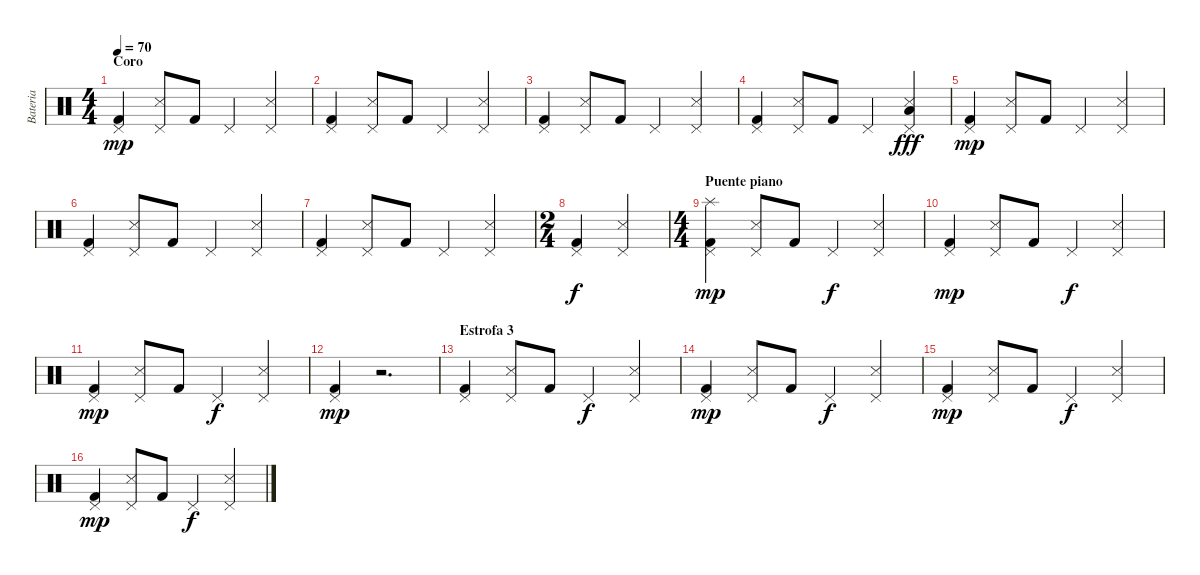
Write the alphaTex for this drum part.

\track ("Bateria" "Bateria") {instrument percussion}
\staff {score}
\articulation defaults
\ts (4 4)
\section ("" "Coro")
\tempo 70
\clef neutral
\ks c
("Kick (hit) 2" "Pedal Hi-Hat (hit)").4{dy mp} ("Snare (side stick) 3" "Pedal Hi-Hat (hit)").8 "Kick (hit) 2".8 "Pedal Hi-Hat (hit)".4 ("Snare (side stick) 3" "Pedal Hi-Hat (hit)").4 |
("Kick (hit) 2" "Pedal Hi-Hat (hit)").4 ("Snare (side stick) 3" "Pedal Hi-Hat (hit)").8 "Kick (hit) 2".8 "Pedal Hi-Hat (hit)".4 ("Snare (side stick) 3" "Pedal Hi-Hat (hit)").4 |
("Kick (hit) 2" "Pedal Hi-Hat (hit)").4 ("Snare (side stick) 3" "Pedal Hi-Hat (hit)").8 "Kick (hit) 2".8 "Pedal Hi-Hat (hit)".4 ("Snare (side stick) 3" "Pedal Hi-Hat (hit)").4 |
("Kick (hit) 2" "Pedal Hi-Hat (hit)").4 ("Snare (side stick) 3" "Pedal Hi-Hat (hit)").8 "Kick (hit) 2".8 "Pedal Hi-Hat (hit)".4 ("Snare (side stick) 3" "Pedal Hi-Hat (hit)" "Low Floor Tom (hit)").4{dy fff} |
("Kick (hit) 2" "Pedal Hi-Hat (hit)").4{dy mp} ("Snare (side stick) 3" "Pedal Hi-Hat (hit)").8 "Kick (hit) 2".8 "Pedal Hi-Hat (hit)".4 ("Snare (side stick) 3" "Pedal Hi-Hat (hit)").4 |
("Kick (hit) 2" "Pedal Hi-Hat (hit)").4 ("Snare (side stick) 3" "Pedal Hi-Hat (hit)").8 "Kick (hit) 2".8 "Pedal Hi-Hat (hit)".4 ("Snare (side stick) 3" "Pedal Hi-Hat (hit)").4 |
("Kick (hit) 2" "Pedal Hi-Hat (hit)").4 ("Snare (side stick) 3" "Pedal Hi-Hat (hit)").8 "Kick (hit) 2".8 "Pedal Hi-Hat (hit)".4 ("Snare (side stick) 3" "Pedal Hi-Hat (hit)").4 |
\ts (2 4)
("Kick (hit) 2" "Pedal Hi-Hat (hit)").4{dy f} ("Snare (side stick) 3" "Pedal Hi-Hat (hit)").4 |
\ts (4 4)
\section ("" "Puente piano")
("Kick (hit) 2" "Pedal Hi-Hat (hit)" "Splash (hit)").4{dy mp} ("Snare (side stick) 3" "Pedal Hi-Hat (hit)").8 "Kick (hit) 2".8 "Pedal Hi-Hat (hit)".4{dy f} ("Snare (side stick) 3" "Pedal Hi-Hat (hit)").4 |
("Kick (hit) 2" "Pedal Hi-Hat (hit)").4{dy mp} ("Snare (side stick) 3" "Pedal Hi-Hat (hit)").8 "Kick (hit) 2".8 "Pedal Hi-Hat (hit)".4{dy f} ("Snare (side stick) 3" "Pedal Hi-Hat (hit)").4 |
("Kick (hit) 2" "Pedal Hi-Hat (hit)").4{dy mp} ("Snare (side stick) 3" "Pedal Hi-Hat (hit)").8 "Kick (hit) 2".8 "Pedal Hi-Hat (hit)".4{dy f} ("Snare (side stick) 3" "Pedal Hi-Hat (hit)").4 |
("Pedal Hi-Hat (hit)" "Kick (hit) 2").4{dy mp} r.2{d} |
\section ("" "Estrofa 3")
("Pedal Hi-Hat (hit)" "Kick (hit) 2").4 ("Pedal Hi-Hat (hit)" "Snare (side stick) 3").8 "Kick (hit) 2".8 "Pedal Hi-Hat (hit)".4{dy f} ("Pedal Hi-Hat (hit)" "Snare (side stick) 3").4 |
("Pedal Hi-Hat (hit)" "Kick (hit) 2").4{dy mp} ("Pedal Hi-Hat (hit)" "Snare (side stick) 3").8 "Kick (hit) 2".8 "Pedal Hi-Hat (hit)".4{dy f} ("Pedal Hi-Hat (hit)" "Snare (side stick) 3").4 |
("Pedal Hi-Hat (hit)" "Kick (hit) 2").4{dy mp} ("Pedal Hi-Hat (hit)" "Snare (side stick) 3").8 "Kick (hit) 2".8 "Pedal Hi-Hat (hit)".4{dy f} ("Pedal Hi-Hat (hit)" "Snare (side stick) 3").4 |
("Pedal Hi-Hat (hit)" "Kick (hit) 2").4{dy mp} ("Pedal Hi-Hat (hit)" "Snare (side stick) 3").8 "Kick (hit) 2".8 "Pedal Hi-Hat (hit)".4{dy f} ("Pedal Hi-Hat (hit)" "Snare (side stick) 3").4
